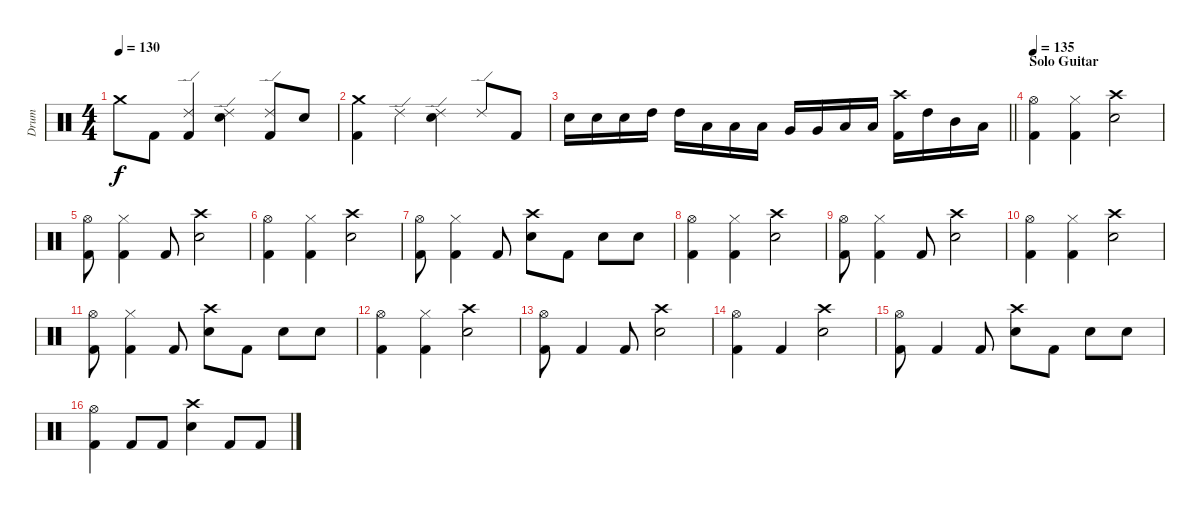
\track ("Drum" "Drum") {instrument percussion}
\staff {score}
\articulation defaults
\ts (4 4)
\tempo 130
\clef neutral
\ks c "Crash medium (hit)".8{dy f} "Kick (hit) 2".8
("Ride (edge) 2" "Kick (hit) 2").4 ("Ride (edge) 2" "Electric Snare (hit)").4 ("Ride (edge) 2" "Kick (hit) 2").8 "Electric Snare (hit)".8 |
("Crash medium (hit)" "Kick (hit) 2").4 "Ride (edge) 2".4 ("Ride (edge) 2" "Electric Snare (hit)").4 "Ride (edge) 2".8 "Kick (hit) 2".8 |
\barLineRight lightlight "Electric Snare (hit)".16 "Electric Snare (hit)".16 "Electric Snare (hit)".16 "High Tom (hit)".16 "High Tom (hit)".16 "Low Tom (hit)".16 "Low Tom (hit)".16 "Low Tom (hit)".16 "Very Low Tom (hit)".16 "Very Low Tom (hit)".16 "Low Floor Tom (hit)".16 "Low Floor Tom (hit)".16
("Crash high (hit)" "Kick (hit) 2").16 "High Tom (hit)".16 "Mid Tom (hit)".16 "Low Tom (hit)".16 |
\section ("" "Solo Guitar")
\tempo 135
("Hi-Hat (open)" "Kick (hit) 2").4 ("Hi-Hat (closed)" "Kick (hit) 2").4 ("Crash high (hit)" "Electric Snare (hit)").2 |
("Hi-Hat (open)" "Kick (hit) 2").8 ("Hi-Hat (closed)" "Kick (hit) 2").4 "Kick (hit) 2".8 ("Crash high (hit)" "Electric Snare (hit)").2 |
("Hi-Hat (open)" "Kick (hit) 2").4 ("Hi-Hat (closed)" "Kick (hit) 2").4 ("Crash high (hit)" "Electric Snare (hit)").2 |
("Hi-Hat (open)" "Kick (hit) 2").8 ("Hi-Hat (closed)" "Kick (hit) 2").4 "Kick (hit) 2".8 ("Crash high (hit)" "Electric Snare (hit)").8 "Kick (hit) 2".8 "Electric Snare (hit)".8 "Electric Snare (hit)".8 |
("Hi-Hat (open)" "Kick (hit) 2").4 ("Hi-Hat (closed)" "Kick (hit) 2").4 ("Crash high (hit)" "Electric Snare (hit)").2 |
("Hi-Hat (open)" "Kick (hit) 2").8 ("Hi-Hat (closed)" "Kick (hit) 2").4 "Kick (hit) 2".8 ("Crash high (hit)" "Electric Snare (hit)").2 |
("Hi-Hat (open)" "Kick (hit) 2").4 ("Hi-Hat (closed)" "Kick (hit) 2").4 ("Crash high (hit)" "Electric Snare (hit)").2 |
("Hi-Hat (open)" "Kick (hit) 2").8 ("Hi-Hat (closed)" "Kick (hit) 2").4 "Kick (hit) 2".8 ("Crash high (hit)" "Electric Snare (hit)").8 "Kick (hit) 2".8 "Electric Snare (hit)".8 "Electric Snare (hit)".8 |
("Hi-Hat (open)" "Kick (hit) 2").4 ("Hi-Hat (closed)" "Kick (hit) 2").4 ("Crash high (hit)" "Electric Snare (hit)").2 |
("Hi-Hat (open)" "Kick (hit) 2").8 "Kick (hit) 2".4 "Kick (hit) 2".8 ("Crash high (hit)" "Electric Snare (hit)").2 |
("Hi-Hat (open)" "Kick (hit) 2").4 "Kick (hit) 2".4 ("Crash high (hit)" "Electric Snare (hit)").2 |
("Hi-Hat (open)" "Kick (hit) 2").8 "Kick (hit) 2".4 "Kick (hit) 2".8 ("Crash high (hit)" "Electric Snare (hit)").8 "Kick (hit) 2".8 "Electric Snare (hit)".8 "Electric Snare (hit)".8 |
("Hi-Hat (open)" "Kick (hit) 2").4 "Kick (hit) 2".8 "Kick (hit) 2".8 ("Crash high (hit)" "Electric Snare (hit)").4 "Kick (hit) 2".8 "Kick (hit) 2".8
